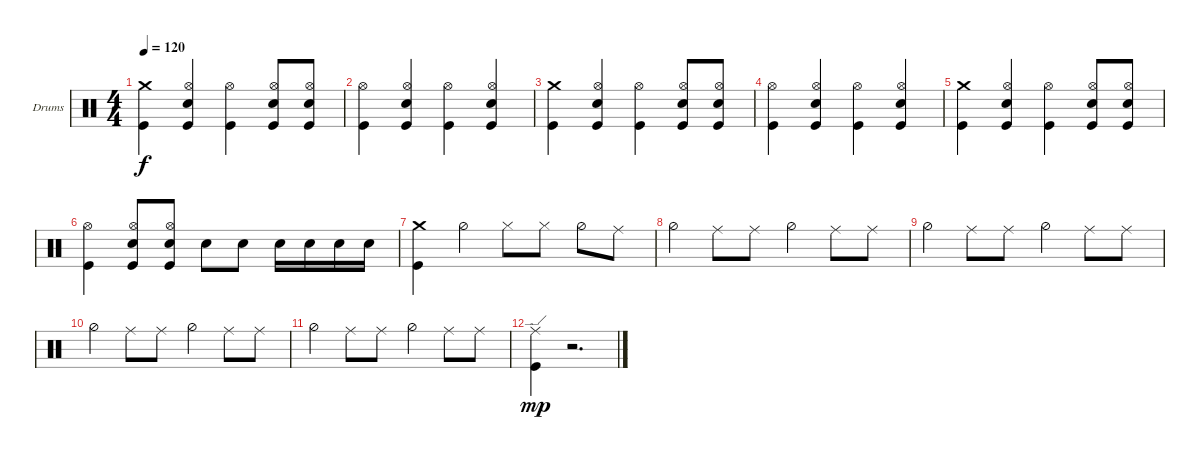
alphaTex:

\bracketExtendMode groupsimilarinstruments
\firstSystemTrackNameOrientation horizontal
\otherSystemsTrackNameOrientation horizontal
\track ("Drumkit" "Drums") {instrument percussion}
\staff {score}
\articulation defaults
\ts (4 4)
\tempo 120
\clef neutral
\ks c
("Kick (hit)" "Crash medium (hit)").4{dy f} ("Kick (hit)" "Hi-Hat (open)" "Snare (hit) 2").4 ("Kick (hit)" "Hi-Hat (open)").4 ("Kick (hit)" "Hi-Hat (open)" "Snare (hit) 2").8 ("Kick (hit)" "Hi-Hat (open)" "Snare (hit) 2").8 |
("Kick (hit)" "Hi-Hat (open)").4 ("Kick (hit)" "Hi-Hat (open)" "Snare (hit) 2").4 ("Kick (hit)" "Hi-Hat (open)").4 ("Kick (hit)" "Hi-Hat (open)" "Snare (hit) 2").4 |
("Kick (hit)" "Crash medium (hit)").4 ("Kick (hit)" "Hi-Hat (open)" "Snare (hit) 2").4 ("Kick (hit)" "Hi-Hat (open)").4 ("Kick (hit)" "Hi-Hat (open)" "Snare (hit) 2").8 ("Kick (hit)" "Hi-Hat (open)" "Snare (hit) 2").8 |
("Kick (hit)" "Hi-Hat (open)").4 ("Kick (hit)" "Hi-Hat (open)" "Snare (hit) 2").4 ("Kick (hit)" "Hi-Hat (open)").4 ("Kick (hit)" "Hi-Hat (open)" "Snare (hit) 2").4 |
("Kick (hit)" "Crash medium (hit)").4 ("Kick (hit)" "Hi-Hat (open)" "Snare (hit) 2").4 ("Kick (hit)" "Hi-Hat (open)").4 ("Kick (hit)" "Hi-Hat (open)" "Snare (hit) 2").8 ("Kick (hit)" "Hi-Hat (open)" "Snare (hit) 2").8 |
("Hi-Hat (open)" "Kick (hit)").4 ("Hi-Hat (open)" "Kick (hit)" "Snare (hit) 2").8 ("Hi-Hat (open)" "Snare (hit) 2" "Kick (hit)").8 "Snare (hit) 2".8 "Snare (hit) 2".8 "Snare (hit) 2".16 "Snare (hit) 2".16 "Snare (hit) 2".16 "Snare (hit) 2".16 |
("Kick (hit)" "Crash medium (hit)").4 "Hi-Hat (half)".4 "Hi-Hat (closed)".8 "Hi-Hat (closed)".8 "Hi-Hat (half)".8 "Ride (middle)".8 |
"Hi-Hat (half)".4 "Ride (middle)".8 "Ride (middle)".8 "Hi-Hat (half)".4 "Ride (middle)".8 "Ride (middle)".8 |
"Hi-Hat (half)".4 "Ride (middle)".8 "Ride (middle)".8 "Hi-Hat (half)".4 "Ride (middle)".8 "Ride (middle)".8 |
"Hi-Hat (half)".4 "Ride (middle)".8 "Ride (middle)".8 "Hi-Hat (half)".4 "Ride (middle)".8 "Ride (middle)".8 |
"Hi-Hat (half)".4 "Ride (middle)".8 "Ride (middle)".8 "Hi-Hat (half)".4 "Ride (middle)".8 "Ride (middle)".8 |
("Kick (hit)" "Ride (edge)").4{dy mp} r.2{d}
